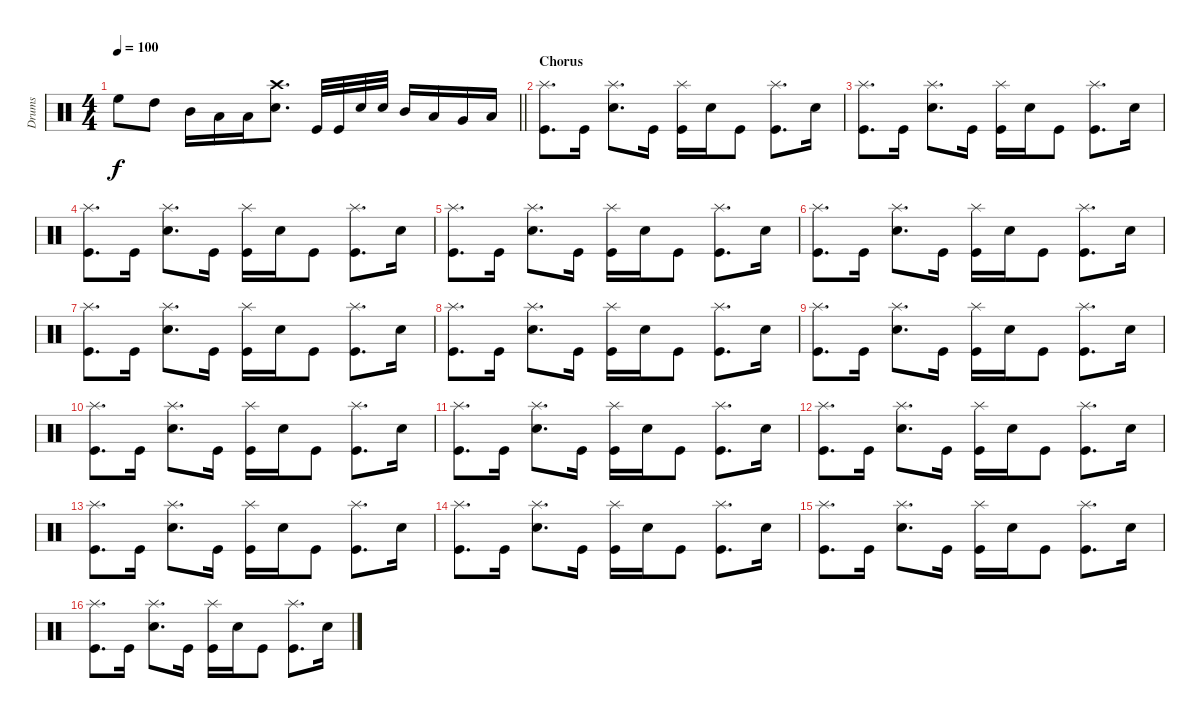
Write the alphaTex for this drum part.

\track ("Drums" "Drums") {instrument percussion}
\staff {score}
\articulation defaults
\ts (4 4)
\tempo 100
\clef neutral
\barLineRight lightlight
\ks c "High Floor Tom (hit)".8{dy f} "High Tom (hit)".8 "Mid Tom (hit)".16 "Low Tom (hit)".16 "Low Floor Tom (hit)".16
("Crash high (hit)" "Snare (hit) 2").8{d} "Kick (hit)".32 "Kick (hit)".32 "Snare (hit) 2".32 "Snare (hit) 2".32 "Mid Tom (hit)".16 "Low Tom (hit)".16 "Very Low Tom (hit)".16 "Low Floor Tom (hit)".16 |
\section ("" "Chorus")
("Splash (hit)" "Kick (hit)").8{d} "Kick (hit)".16 ("Splash (hit)" "Snare (hit) 2").8{d} "Kick (hit)".16 ("Splash (hit)" "Kick (hit)").16 "Snare (hit) 2".16 "Kick (hit)".8 ("Splash (hit)" "Kick (hit)").8{d} "Snare (hit) 2".16 |
("Splash (hit)" "Kick (hit)").8{d} "Kick (hit)".16 ("Splash (hit)" "Snare (hit) 2").8{d} "Kick (hit)".16 ("Splash (hit)" "Kick (hit)").16 "Snare (hit) 2".16 "Kick (hit)".8 ("Splash (hit)" "Kick (hit)").8{d} "Snare (hit) 2".16 |
("Splash (hit)" "Kick (hit)").8{d} "Kick (hit)".16 ("Splash (hit)" "Snare (hit) 2").8{d} "Kick (hit)".16 ("Splash (hit)" "Kick (hit)").16 "Snare (hit) 2".16 "Kick (hit)".8 ("Splash (hit)" "Kick (hit)").8{d} "Snare (hit) 2".16 |
("Splash (hit)" "Kick (hit)").8{d} "Kick (hit)".16 ("Splash (hit)" "Snare (hit) 2").8{d} "Kick (hit)".16 ("Splash (hit)" "Kick (hit)").16 "Snare (hit) 2".16 "Kick (hit)".8 ("Splash (hit)" "Kick (hit)").8{d} "Snare (hit) 2".16 |
("Splash (hit)" "Kick (hit)").8{d} "Kick (hit)".16 ("Splash (hit)" "Snare (hit) 2").8{d} "Kick (hit)".16 ("Splash (hit)" "Kick (hit)").16 "Snare (hit) 2".16 "Kick (hit)".8 ("Splash (hit)" "Kick (hit)").8{d} "Snare (hit) 2".16 |
("Splash (hit)" "Kick (hit)").8{d} "Kick (hit)".16 ("Splash (hit)" "Snare (hit) 2").8{d} "Kick (hit)".16 ("Splash (hit)" "Kick (hit)").16 "Snare (hit) 2".16 "Kick (hit)".8 ("Splash (hit)" "Kick (hit)").8{d} "Snare (hit) 2".16 |
("Splash (hit)" "Kick (hit)").8{d} "Kick (hit)".16 ("Splash (hit)" "Snare (hit) 2").8{d} "Kick (hit)".16 ("Splash (hit)" "Kick (hit)").16 "Snare (hit) 2".16 "Kick (hit)".8 ("Splash (hit)" "Kick (hit)").8{d} "Snare (hit) 2".16 |
("Splash (hit)" "Kick (hit)").8{d} "Kick (hit)".16 ("Splash (hit)" "Snare (hit) 2").8{d} "Kick (hit)".16 ("Splash (hit)" "Kick (hit)").16 "Snare (hit) 2".16 "Kick (hit)".8 ("Splash (hit)" "Kick (hit)").8{d} "Snare (hit) 2".16 |
("Splash (hit)" "Kick (hit)").8{d} "Kick (hit)".16 ("Splash (hit)" "Snare (hit) 2").8{d} "Kick (hit)".16 ("Splash (hit)" "Kick (hit)").16 "Snare (hit) 2".16 "Kick (hit)".8 ("Splash (hit)" "Kick (hit)").8{d} "Snare (hit) 2".16 |
("Splash (hit)" "Kick (hit)").8{d} "Kick (hit)".16 ("Splash (hit)" "Snare (hit) 2").8{d} "Kick (hit)".16 ("Splash (hit)" "Kick (hit)").16 "Snare (hit) 2".16 "Kick (hit)".8 ("Splash (hit)" "Kick (hit)").8{d} "Snare (hit) 2".16 |
("Splash (hit)" "Kick (hit)").8{d} "Kick (hit)".16 ("Splash (hit)" "Snare (hit) 2").8{d} "Kick (hit)".16 ("Splash (hit)" "Kick (hit)").16 "Snare (hit) 2".16 "Kick (hit)".8 ("Splash (hit)" "Kick (hit)").8{d} "Snare (hit) 2".16 |
("Splash (hit)" "Kick (hit)").8{d} "Kick (hit)".16 ("Splash (hit)" "Snare (hit) 2").8{d} "Kick (hit)".16 ("Splash (hit)" "Kick (hit)").16 "Snare (hit) 2".16 "Kick (hit)".8 ("Splash (hit)" "Kick (hit)").8{d} "Snare (hit) 2".16 |
("Splash (hit)" "Kick (hit)").8{d} "Kick (hit)".16 ("Splash (hit)" "Snare (hit) 2").8{d} "Kick (hit)".16 ("Splash (hit)" "Kick (hit)").16 "Snare (hit) 2".16 "Kick (hit)".8 ("Splash (hit)" "Kick (hit)").8{d} "Snare (hit) 2".16 |
("Splash (hit)" "Kick (hit)").8{d} "Kick (hit)".16 ("Splash (hit)" "Snare (hit) 2").8{d} "Kick (hit)".16 ("Splash (hit)" "Kick (hit)").16 "Snare (hit) 2".16 "Kick (hit)".8 ("Splash (hit)" "Kick (hit)").8{d} "Snare (hit) 2".16 |
("Splash (hit)" "Kick (hit)").8{d} "Kick (hit)".16 ("Splash (hit)" "Snare (hit) 2").8{d} "Kick (hit)".16 ("Splash (hit)" "Kick (hit)").16 "Snare (hit) 2".16 "Kick (hit)".8 ("Splash (hit)" "Kick (hit)").8{d} "Snare (hit) 2".16
